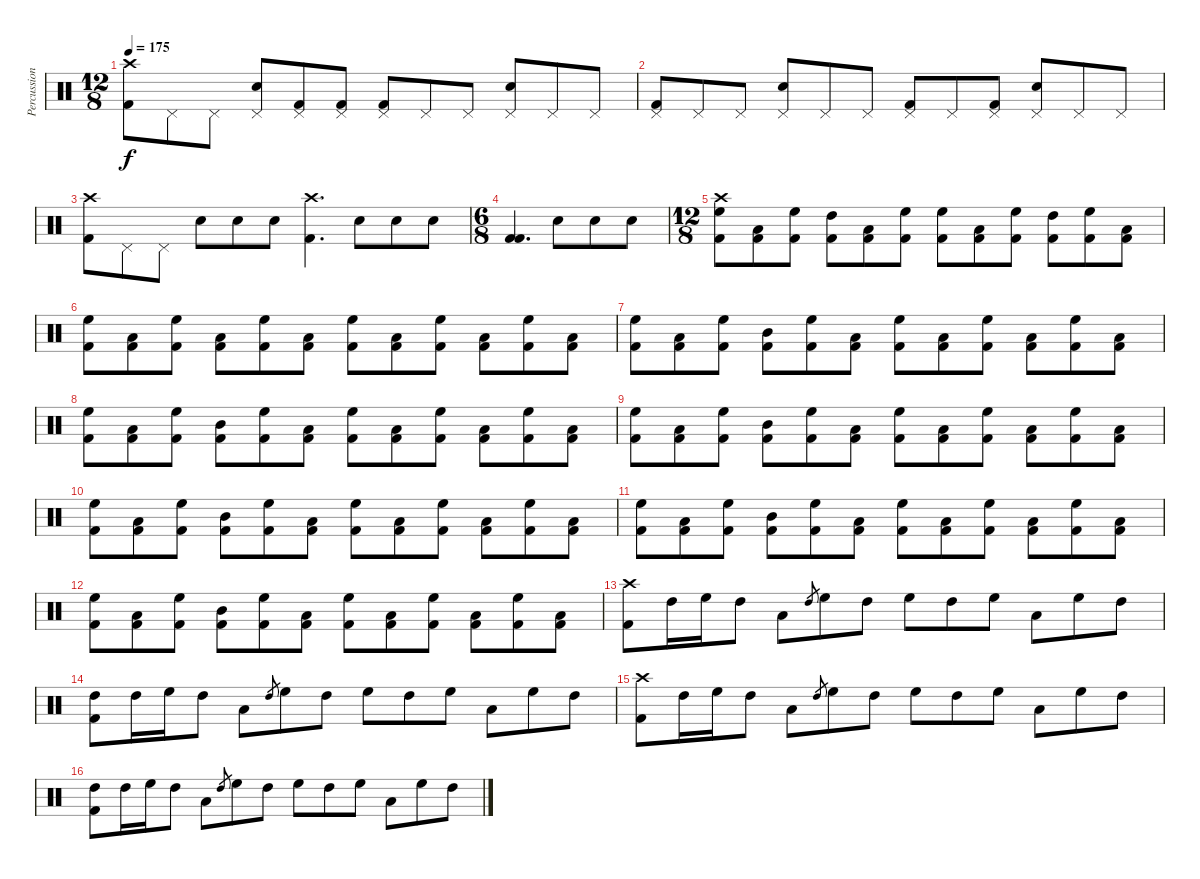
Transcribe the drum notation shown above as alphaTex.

\track ("Percussion" "Percussion") {instrument percussion}
\staff {score}
\articulation defaults
\ts (12 8)
\tempo 175
\clef neutral
\ks c
("Kick (hit) 2" "Crash high (hit)").8{dy f} "Pedal Hi-Hat (hit)".8 "Pedal Hi-Hat (hit)".8 ("Snare (hit) 2" "Pedal Hi-Hat (hit)").8 ("Kick (hit) 2" "Pedal Hi-Hat (hit)").8 ("Kick (hit) 2" "Pedal Hi-Hat (hit)").8 ("Kick (hit) 2" "Pedal Hi-Hat (hit)").8 "Pedal Hi-Hat (hit)".8 "Pedal Hi-Hat (hit)".8 ("Snare (hit) 2" "Pedal Hi-Hat (hit)").8 "Pedal Hi-Hat (hit)".8 "Pedal Hi-Hat (hit)".8 |
("Kick (hit) 2" "Pedal Hi-Hat (hit)").8 "Pedal Hi-Hat (hit)".8 "Pedal Hi-Hat (hit)".8 ("Snare (hit) 2" "Pedal Hi-Hat (hit)").8 "Pedal Hi-Hat (hit)".8 "Pedal Hi-Hat (hit)".8 ("Kick (hit) 2" "Pedal Hi-Hat (hit)").8 "Pedal Hi-Hat (hit)".8 ("Kick (hit) 2" "Pedal Hi-Hat (hit)").8 ("Snare (hit) 2" "Pedal Hi-Hat (hit)").8 "Pedal Hi-Hat (hit)".8 "Pedal Hi-Hat (hit)".8 |
("Kick (hit) 2" "Crash high (hit)").8 "Pedal Hi-Hat (hit)".8 "Pedal Hi-Hat (hit)".8 "Snare (hit) 2".8 "Snare (hit) 2".8 "Snare (hit) 2".8 ("Kick (hit) 2" "Crash high (hit)").4{d} "Snare (hit) 2".8 "Snare (hit) 2".8 "Snare (hit) 2".8 |
\ts (6 8)
("Kick (hit) 2" "Kick (hit) 2").4{d} "Snare (hit) 2".8 "Snare (hit) 2".8 "Snare (hit) 2".8 |
\ts (12 8)
("Kick (hit) 2" "High Floor Tom (hit)" "Crash high (hit)").8 ("Kick (hit) 2" "Low Floor Tom (hit)").8 ("Kick (hit) 2" "High Floor Tom (hit)").8 ("Kick (hit) 2" "High Tom (hit)").8 ("Kick (hit) 2" "Low Floor Tom (hit)").8 ("Kick (hit) 2" "High Floor Tom (hit)").8 ("Kick (hit) 2" "High Floor Tom (hit)").8 ("Kick (hit) 2" "Low Floor Tom (hit)").8 ("Kick (hit) 2" "High Floor Tom (hit)").8 ("Kick (hit) 2" "High Tom (hit)").8 ("Kick (hit) 2" "High Floor Tom (hit)").8 ("Kick (hit) 2" "Low Floor Tom (hit)").8 |
("Kick (hit) 2" "High Floor Tom (hit)").8 ("Kick (hit) 2" "Low Floor Tom (hit)").8 ("Kick (hit) 2" "High Floor Tom (hit)").8 ("Kick (hit) 2" "Low Tom (hit)").8 ("Kick (hit) 2" "High Floor Tom (hit)").8 ("Kick (hit) 2" "Low Floor Tom (hit)").8 ("Kick (hit) 2" "High Floor Tom (hit)").8 ("Kick (hit) 2" "Low Floor Tom (hit)").8 ("Kick (hit) 2" "High Floor Tom (hit)").8 ("Kick (hit) 2" "Low Tom (hit)").8 ("Kick (hit) 2" "High Floor Tom (hit)").8 ("Kick (hit) 2" "Low Tom (hit)").8 |
("Kick (hit) 2" "High Floor Tom (hit)").8 ("Kick (hit) 2" "Low Floor Tom (hit)").8 ("Kick (hit) 2" "High Floor Tom (hit)").8 ("Kick (hit) 2" "Mid Tom (hit)").8 ("Kick (hit) 2" "High Floor Tom (hit)").8 ("Kick (hit) 2" "Low Floor Tom (hit)").8 ("Kick (hit) 2" "High Floor Tom (hit)").8 ("Kick (hit) 2" "Low Floor Tom (hit)").8 ("Kick (hit) 2" "High Floor Tom (hit)").8 ("Kick (hit) 2" "Low Tom (hit)").8 ("Kick (hit) 2" "High Floor Tom (hit)").8 ("Kick (hit) 2" "Low Floor Tom (hit)").8 |
("Kick (hit) 2" "High Floor Tom (hit)").8 ("Kick (hit) 2" "Low Floor Tom (hit)").8 ("Kick (hit) 2" "High Floor Tom (hit)").8 ("Kick (hit) 2" "Mid Tom (hit)").8 ("Kick (hit) 2" "High Floor Tom (hit)").8 ("Kick (hit) 2" "Low Floor Tom (hit)").8 ("Kick (hit) 2" "High Floor Tom (hit)").8 ("Kick (hit) 2" "Low Floor Tom (hit)").8 ("Kick (hit) 2" "High Floor Tom (hit)").8 ("Kick (hit) 2" "Low Tom (hit)").8 ("Kick (hit) 2" "High Floor Tom (hit)").8 ("Kick (hit) 2" "Low Floor Tom (hit)").8 |
("Kick (hit) 2" "High Floor Tom (hit)").8 ("Kick (hit) 2" "Low Floor Tom (hit)").8 ("Kick (hit) 2" "High Floor Tom (hit)").8 ("Kick (hit) 2" "Mid Tom (hit)").8 ("Kick (hit) 2" "High Floor Tom (hit)").8 ("Kick (hit) 2" "Low Floor Tom (hit)").8 ("Kick (hit) 2" "High Floor Tom (hit)").8 ("Kick (hit) 2" "Low Floor Tom (hit)").8 ("Kick (hit) 2" "High Floor Tom (hit)").8 ("Kick (hit) 2" "Low Tom (hit)").8 ("Kick (hit) 2" "High Floor Tom (hit)").8 ("Kick (hit) 2" "Low Floor Tom (hit)").8 |
("Kick (hit) 2" "High Floor Tom (hit)").8 ("Kick (hit) 2" "Low Floor Tom (hit)").8 ("Kick (hit) 2" "High Floor Tom (hit)").8 ("Kick (hit) 2" "Mid Tom (hit)").8 ("Kick (hit) 2" "High Floor Tom (hit)").8 ("Kick (hit) 2" "Low Floor Tom (hit)").8 ("Kick (hit) 2" "High Floor Tom (hit)").8 ("Kick (hit) 2" "Low Floor Tom (hit)").8 ("Kick (hit) 2" "High Floor Tom (hit)").8 ("Kick (hit) 2" "Low Tom (hit)").8 ("Kick (hit) 2" "High Floor Tom (hit)").8 ("Kick (hit) 2" "Low Floor Tom (hit)").8 |
("Kick (hit) 2" "High Floor Tom (hit)").8 ("Kick (hit) 2" "Low Floor Tom (hit)").8 ("Kick (hit) 2" "High Floor Tom (hit)").8 ("Kick (hit) 2" "Mid Tom (hit)").8 ("Kick (hit) 2" "High Floor Tom (hit)").8 ("Kick (hit) 2" "Low Floor Tom (hit)").8 ("Kick (hit) 2" "High Floor Tom (hit)").8 ("Kick (hit) 2" "Low Floor Tom (hit)").8 ("Kick (hit) 2" "High Floor Tom (hit)").8 ("Kick (hit) 2" "Low Tom (hit)").8 ("Kick (hit) 2" "High Floor Tom (hit)").8 ("Kick (hit) 2" "Low Floor Tom (hit)").8 |
("Kick (hit) 2" "High Floor Tom (hit)").8 ("Kick (hit) 2" "Low Floor Tom (hit)").8 ("Kick (hit) 2" "High Floor Tom (hit)").8 ("Kick (hit) 2" "Mid Tom (hit)").8 ("Kick (hit) 2" "High Floor Tom (hit)").8 ("Kick (hit) 2" "Low Floor Tom (hit)").8 ("Kick (hit) 2" "High Floor Tom (hit)").8 ("Kick (hit) 2" "Low Floor Tom (hit)").8 ("Kick (hit) 2" "High Floor Tom (hit)").8 ("Kick (hit) 2" "Low Tom (hit)").8 ("Kick (hit) 2" "High Floor Tom (hit)").8 ("Kick (hit) 2" "Low Floor Tom (hit)").8 |
("Kick (hit) 2" "Crash high (hit)").8 "High Tom (hit)".16 "High Floor Tom (hit)".16 "High Tom (hit)".8 "Low Tom (hit)".8 "High Tom (hit)".8{gr} "High Floor Tom (hit)".8 "High Tom (hit)".8 "High Floor Tom (hit)".8 "High Tom (hit)".8 "High Floor Tom (hit)".8 "Low Tom (hit)".8 "High Floor Tom (hit)".8 "High Tom (hit)".8 |
("Kick (hit) 2" "High Tom (hit)").8 "High Tom (hit)".16 "High Floor Tom (hit)".16 "High Tom (hit)".8 "Low Tom (hit)".8 "High Tom (hit)".8{gr} "High Floor Tom (hit)".8 "High Tom (hit)".8 "High Floor Tom (hit)".8 "High Tom (hit)".8 "High Floor Tom (hit)".8 "Low Tom (hit)".8 "High Floor Tom (hit)".8 "High Tom (hit)".8 |
("Kick (hit) 2" "Crash high (hit)").8 "High Tom (hit)".16 "High Floor Tom (hit)".16 "High Tom (hit)".8 "Low Tom (hit)".8 "High Tom (hit)".8{gr} "High Floor Tom (hit)".8 "High Tom (hit)".8 "High Floor Tom (hit)".8 "High Tom (hit)".8 "High Floor Tom (hit)".8 "Low Tom (hit)".8 "High Floor Tom (hit)".8 "High Tom (hit)".8 |
("Kick (hit) 2" "High Tom (hit)").8 "High Tom (hit)".16 "High Floor Tom (hit)".16 "High Tom (hit)".8 "Low Tom (hit)".8 "High Tom (hit)".8{gr} "High Floor Tom (hit)".8 "High Tom (hit)".8 "High Floor Tom (hit)".8 "High Tom (hit)".8 "High Floor Tom (hit)".8 "Low Tom (hit)".8 "High Floor Tom (hit)".8 "High Tom (hit)".8
